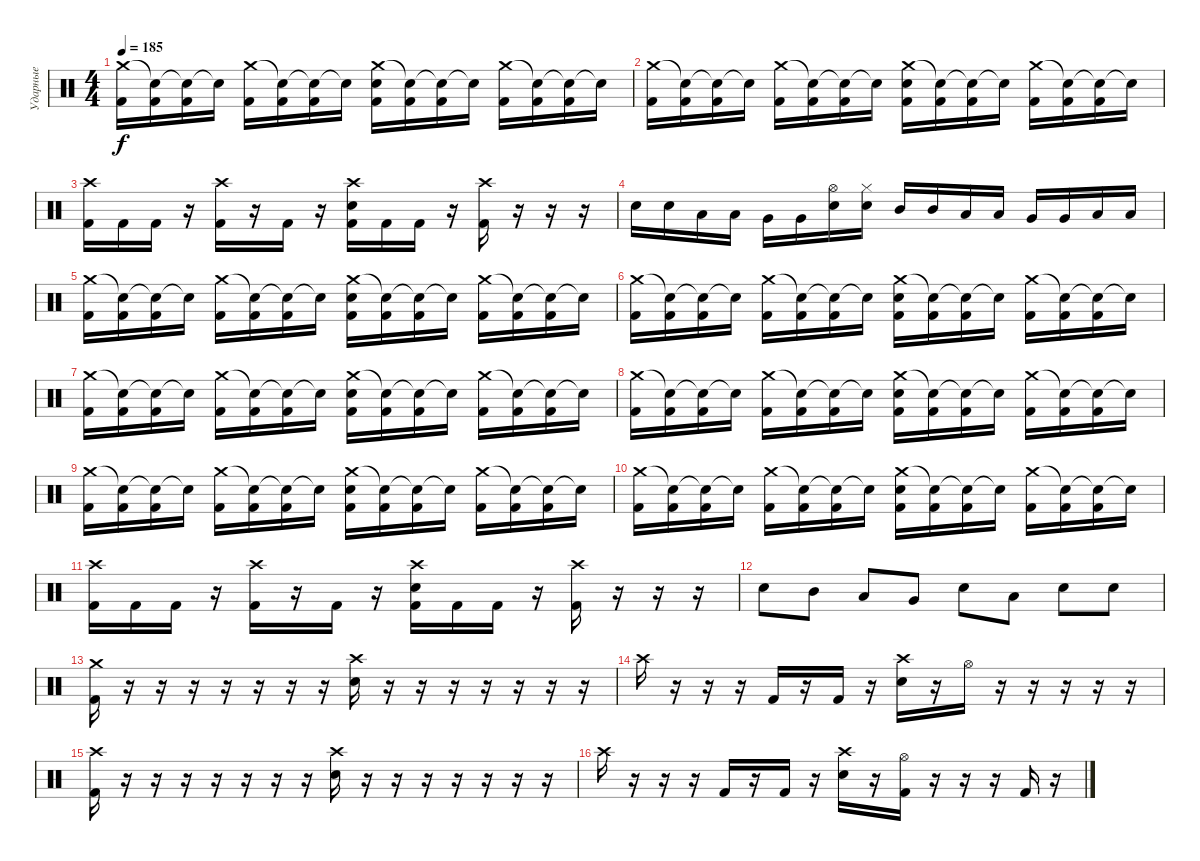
\track ("Ударные" "Ударные") {instrument percussion}
\staff {score}
\articulation defaults
\ts (4 4)
\tempo 185
\clef neutral
\ks c
("Crash medium (hit)" "Kick (hit) 2").16{dy f} ("Snare (hit)"{t} "Kick (hit) 2").16 ("Snare (hit)"{t} "Kick (hit) 2").16 "Snare (hit)"{t}.16 ("Crash medium (hit)" "Kick (hit) 2").16 ("Snare (hit)"{t} "Kick (hit) 2").16 ("Snare (hit)"{t} "Kick (hit) 2").16 "Snare (hit)"{t}.16 ("Crash medium (hit)" "Electric Snare (hit)" "Kick (hit) 2").16 ("Snare (hit)"{t} "Kick (hit) 2").16 ("Snare (hit)"{t} "Kick (hit) 2").16 "Snare (hit)"{t}.16 ("Crash medium (hit)" "Kick (hit) 2").16 ("Snare (hit)"{t} "Kick (hit) 2").16 ("Snare (hit)"{t} "Kick (hit) 2").16 "Snare (hit)"{t}.16 |
("Crash medium (hit)" "Kick (hit) 2").16 ("Snare (hit)"{t} "Kick (hit) 2").16 ("Snare (hit)"{t} "Kick (hit) 2").16 "Snare (hit)"{t}.16 ("Crash medium (hit)" "Kick (hit) 2").16 ("Snare (hit)"{t} "Kick (hit) 2").16 ("Snare (hit)"{t} "Kick (hit) 2").16 "Snare (hit)"{t}.16 ("Crash medium (hit)" "Electric Snare (hit)" "Kick (hit) 2").16 ("Snare (hit)"{t} "Kick (hit) 2").16 ("Snare (hit)"{t} "Kick (hit) 2").16 "Snare (hit)"{t}.16 ("Crash medium (hit)" "Kick (hit) 2").16 ("Snare (hit)"{t} "Kick (hit) 2").16 ("Snare (hit)"{t} "Kick (hit) 2").16 "Snare (hit)"{t}.16 |
("Crash high (hit)" "Kick (hit) 2").16 "Kick (hit) 2".16 "Kick (hit) 2".16 r.16 ("Crash high (hit)" "Kick (hit) 2").16 r.16 "Kick (hit) 2".16 r.16 ("Crash high (hit)" "Electric Snare (hit)" "Kick (hit) 2").16 "Kick (hit) 2".16 "Kick (hit) 2".16 r.16 ("Crash high (hit)" "Kick (hit) 2").16 r.16 r.16 r.16 |
"Electric Snare (hit)".16 "Electric Snare (hit)".16 "Low Tom (hit)".16 "Low Tom (hit)".16 "Very Low Tom (hit)".16 "Very Low Tom (hit)".16 ("Hi-Hat (open)" "Electric Snare (hit)").16 ("Hi-Hat (closed)" "Electric Snare (hit)").16 "Mid Tom (hit)".16 "Mid Tom (hit)".16 "Low Tom (hit)".16 "Low Tom (hit)".16 "Very Low Tom (hit)".16 "Very Low Tom (hit)".16 "Low Floor Tom (hit)".16 "Low Floor Tom (hit)".16 |
("Crash medium (hit)" "Kick (hit) 2").16 ("Snare (hit)"{t} "Kick (hit) 2").16 ("Snare (hit)"{t} "Kick (hit) 2").16 "Snare (hit)"{t}.16 ("Crash medium (hit)" "Kick (hit) 2").16 ("Snare (hit)"{t} "Kick (hit) 2").16 ("Snare (hit)"{t} "Kick (hit) 2").16 "Snare (hit)"{t}.16 ("Crash medium (hit)" "Electric Snare (hit)" "Kick (hit) 2").16 ("Snare (hit)"{t} "Kick (hit) 2").16 ("Snare (hit)"{t} "Kick (hit) 2").16 "Snare (hit)"{t}.16 ("Crash medium (hit)" "Kick (hit) 2").16 ("Snare (hit)"{t} "Kick (hit) 2").16 ("Snare (hit)"{t} "Kick (hit) 2").16 "Snare (hit)"{t}.16 |
("Crash medium (hit)" "Kick (hit) 2").16 ("Snare (hit)"{t} "Kick (hit) 2").16 ("Snare (hit)"{t} "Kick (hit) 2").16 "Snare (hit)"{t}.16 ("Crash medium (hit)" "Kick (hit) 2").16 ("Snare (hit)"{t} "Kick (hit) 2").16 ("Snare (hit)"{t} "Kick (hit) 2").16 "Snare (hit)"{t}.16 ("Crash medium (hit)" "Electric Snare (hit)" "Kick (hit) 2").16 ("Snare (hit)"{t} "Kick (hit) 2").16 ("Snare (hit)"{t} "Kick (hit) 2").16 "Snare (hit)"{t}.16 ("Crash medium (hit)" "Kick (hit) 2").16 ("Snare (hit)"{t} "Kick (hit) 2").16 ("Snare (hit)"{t} "Kick (hit) 2").16 "Snare (hit)"{t}.16 |
("Crash medium (hit)" "Kick (hit) 2").16 ("Snare (hit)"{t} "Kick (hit) 2").16 ("Snare (hit)"{t} "Kick (hit) 2").16 "Snare (hit)"{t}.16 ("Crash medium (hit)" "Kick (hit) 2").16 ("Snare (hit)"{t} "Kick (hit) 2").16 ("Snare (hit)"{t} "Kick (hit) 2").16 "Snare (hit)"{t}.16 ("Crash medium (hit)" "Electric Snare (hit)" "Kick (hit) 2").16 ("Snare (hit)"{t} "Kick (hit) 2").16 ("Snare (hit)"{t} "Kick (hit) 2").16 "Snare (hit)"{t}.16 ("Crash medium (hit)" "Kick (hit) 2").16 ("Snare (hit)"{t} "Kick (hit) 2").16 ("Snare (hit)"{t} "Kick (hit) 2").16 "Snare (hit)"{t}.16 |
("Crash medium (hit)" "Kick (hit) 2").16 ("Snare (hit)"{t} "Kick (hit) 2").16 ("Snare (hit)"{t} "Kick (hit) 2").16 "Snare (hit)"{t}.16 ("Crash medium (hit)" "Kick (hit) 2").16 ("Snare (hit)"{t} "Kick (hit) 2").16 ("Snare (hit)"{t} "Kick (hit) 2").16 "Snare (hit)"{t}.16 ("Crash medium (hit)" "Electric Snare (hit)" "Kick (hit) 2").16 ("Snare (hit)"{t} "Kick (hit) 2").16 ("Snare (hit)"{t} "Kick (hit) 2").16 "Snare (hit)"{t}.16 ("Crash medium (hit)" "Kick (hit) 2").16 ("Snare (hit)"{t} "Kick (hit) 2").16 ("Snare (hit)"{t} "Kick (hit) 2").16 "Snare (hit)"{t}.16 |
("Crash medium (hit)" "Kick (hit) 2").16 ("Snare (hit)"{t} "Kick (hit) 2").16 ("Snare (hit)"{t} "Kick (hit) 2").16 "Snare (hit)"{t}.16 ("Crash medium (hit)" "Kick (hit) 2").16 ("Snare (hit)"{t} "Kick (hit) 2").16 ("Snare (hit)"{t} "Kick (hit) 2").16 "Snare (hit)"{t}.16 ("Crash medium (hit)" "Electric Snare (hit)" "Kick (hit) 2").16 ("Snare (hit)"{t} "Kick (hit) 2").16 ("Snare (hit)"{t} "Kick (hit) 2").16 "Snare (hit)"{t}.16 ("Crash medium (hit)" "Kick (hit) 2").16 ("Snare (hit)"{t} "Kick (hit) 2").16 ("Snare (hit)"{t} "Kick (hit) 2").16 "Snare (hit)"{t}.16 |
("Crash medium (hit)" "Kick (hit) 2").16 ("Snare (hit)"{t} "Kick (hit) 2").16 ("Snare (hit)"{t} "Kick (hit) 2").16 "Snare (hit)"{t}.16 ("Crash medium (hit)" "Kick (hit) 2").16 ("Snare (hit)"{t} "Kick (hit) 2").16 ("Snare (hit)"{t} "Kick (hit) 2").16 "Snare (hit)"{t}.16 ("Crash medium (hit)" "Electric Snare (hit)" "Kick (hit) 2").16 ("Snare (hit)"{t} "Kick (hit) 2").16 ("Snare (hit)"{t} "Kick (hit) 2").16 "Snare (hit)"{t}.16 ("Crash medium (hit)" "Kick (hit) 2").16 ("Snare (hit)"{t} "Kick (hit) 2").16 ("Snare (hit)"{t} "Kick (hit) 2").16 "Snare (hit)"{t}.16 |
("Crash high (hit)" "Kick (hit) 2").16 "Kick (hit) 2".16 "Kick (hit) 2".16 r.16 ("Crash high (hit)" "Kick (hit) 2").16 r.16 "Kick (hit) 2".16 r.16 ("Crash high (hit)" "Electric Snare (hit)" "Kick (hit) 2").16 "Kick (hit) 2".16 "Kick (hit) 2".16 r.16 ("Crash high (hit)" "Kick (hit) 2").16 r.16 r.16 r.16 |
"Electric Snare (hit)".8 "Mid Tom (hit)".8 "Low Tom (hit)".8 "Very Low Tom (hit)".8 "Electric Snare (hit)".8 "Low Tom (hit)".8 "Electric Snare (hit)".8 "Electric Snare (hit)".8 |
("Crash medium (hit)" "Kick (hit) 2").16 r.16 r.16 r.16 r.16 r.16 r.16 r.16 ("Crash high (hit)" "Electric Snare (hit)").16 r.16 r.16 r.16 r.16 r.16 r.16 r.16 |
"Crash high (hit)".16 r.16 r.16 r.16 "Kick (hit) 2".16 r.16 "Kick (hit) 2".16 r.16 ("Crash high (hit)" "Electric Snare (hit)").16 r.16 "Hi-Hat (open)".16 r.16 r.16 r.16 r.16 r.16 |
("Crash high (hit)" "Kick (hit) 2").16 r.16 r.16 r.16 r.16 r.16 r.16 r.16 ("Crash high (hit)" "Electric Snare (hit)").16 r.16 r.16 r.16 r.16 r.16 r.16 r.16 |
"Crash high (hit)".16 r.16 r.16 r.16 "Kick (hit) 2".16 r.16 "Kick (hit) 2".16 r.16 ("Crash high (hit)" "Electric Snare (hit)").16 r.16 ("Hi-Hat (open)" "Kick (hit) 2").16 r.16 r.16 r.16 "Kick (hit) 2".16 r.16
